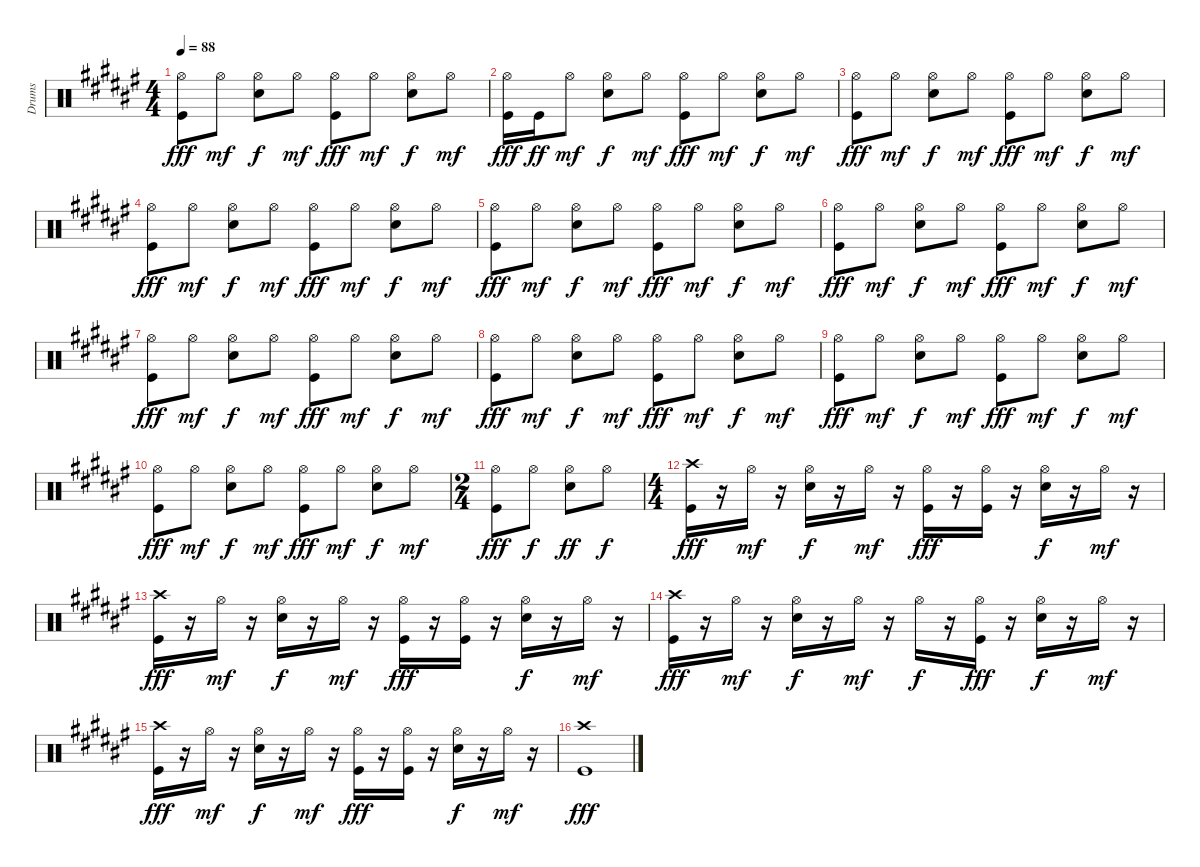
\track ("Drums" "Drums") {instrument percussion}
\staff {score}
\articulation defaults
\ts (4 4)
\tempo 88
\clef neutral
\ks f#
("Hi-Hat (open)" "Kick (hit)").8{dy fff} "Hi-Hat (open)".8{dy mf} ("Hi-Hat (open)" "Snare (hit) 2").8{dy f} "Hi-Hat (open)".8{dy mf} ("Hi-Hat (open)" "Kick (hit)").8{dy fff} "Hi-Hat (open)".8{dy mf} ("Hi-Hat (open)" "Snare (hit) 2").8{dy f} "Hi-Hat (open)".8{dy mf} |
("Hi-Hat (open)" "Kick (hit)").16{dy fff} "Kick (hit)".16{dy ff} "Hi-Hat (open)".8{dy mf} ("Hi-Hat (open)" "Snare (hit) 2").8{dy f} "Hi-Hat (open)".8{dy mf} ("Hi-Hat (open)" "Kick (hit)").8{dy fff} "Hi-Hat (open)".8{dy mf} ("Hi-Hat (open)" "Snare (hit) 2").8{dy f} "Hi-Hat (open)".8{dy mf} |
("Hi-Hat (open)" "Kick (hit)").8{dy fff} "Hi-Hat (open)".8{dy mf} ("Hi-Hat (open)" "Snare (hit) 2").8{dy f} "Hi-Hat (open)".8{dy mf} ("Hi-Hat (open)" "Kick (hit)").8{dy fff} "Hi-Hat (open)".8{dy mf} ("Hi-Hat (open)" "Snare (hit) 2").8{dy f} "Hi-Hat (open)".8{dy mf} |
("Hi-Hat (open)" "Kick (hit)").8{dy fff} "Hi-Hat (open)".8{dy mf} ("Hi-Hat (open)" "Snare (hit) 2").8{dy f} "Hi-Hat (open)".8{dy mf} ("Hi-Hat (open)" "Kick (hit)").8{dy fff} "Hi-Hat (open)".8{dy mf} ("Hi-Hat (open)" "Snare (hit) 2").8{dy f} "Hi-Hat (open)".8{dy mf} |
("Hi-Hat (open)" "Kick (hit)").8{dy fff} "Hi-Hat (open)".8{dy mf} ("Hi-Hat (open)" "Snare (hit) 2").8{dy f} "Hi-Hat (open)".8{dy mf} ("Hi-Hat (open)" "Kick (hit)").8{dy fff} "Hi-Hat (open)".8{dy mf} ("Hi-Hat (open)" "Snare (hit) 2").8{dy f} "Hi-Hat (open)".8{dy mf} |
("Hi-Hat (open)" "Kick (hit)").8{dy fff} "Hi-Hat (open)".8{dy mf} ("Hi-Hat (open)" "Snare (hit) 2").8{dy f} "Hi-Hat (open)".8{dy mf} ("Hi-Hat (open)" "Kick (hit)").8{dy fff} "Hi-Hat (open)".8{dy mf} ("Hi-Hat (open)" "Snare (hit) 2").8{dy f} "Hi-Hat (open)".8{dy mf} |
("Hi-Hat (open)" "Kick (hit)").8{dy fff} "Hi-Hat (open)".8{dy mf} ("Hi-Hat (open)" "Snare (hit) 2").8{dy f} "Hi-Hat (open)".8{dy mf} ("Hi-Hat (open)" "Kick (hit)").8{dy fff} "Hi-Hat (open)".8{dy mf} ("Hi-Hat (open)" "Snare (hit) 2").8{dy f} "Hi-Hat (open)".8{dy mf} |
("Hi-Hat (open)" "Kick (hit)").8{dy fff} "Hi-Hat (open)".8{dy mf} ("Hi-Hat (open)" "Snare (hit) 2").8{dy f} "Hi-Hat (open)".8{dy mf} ("Hi-Hat (open)" "Kick (hit)").8{dy fff} "Hi-Hat (open)".8{dy mf} ("Hi-Hat (open)" "Snare (hit) 2").8{dy f} "Hi-Hat (open)".8{dy mf} |
("Hi-Hat (open)" "Kick (hit)").8{dy fff} "Hi-Hat (open)".8{dy mf} ("Hi-Hat (open)" "Snare (hit) 2").8{dy f} "Hi-Hat (open)".8{dy mf} ("Hi-Hat (open)" "Kick (hit)").8{dy fff} "Hi-Hat (open)".8{dy mf} ("Hi-Hat (open)" "Snare (hit) 2").8{dy f} "Hi-Hat (open)".8{dy mf} |
("Hi-Hat (open)" "Kick (hit)").8{dy fff} "Hi-Hat (open)".8{dy mf} ("Hi-Hat (open)" "Snare (hit) 2").8{dy f} "Hi-Hat (open)".8{dy mf} ("Hi-Hat (open)" "Kick (hit)").8{dy fff} "Hi-Hat (open)".8{dy mf} ("Hi-Hat (open)" "Snare (hit) 2").8{dy f} "Hi-Hat (open)".8{dy mf} |
\ts (2 4)
("Hi-Hat (open)" "Kick (hit)").8{dy fff} "Hi-Hat (open)".8{dy f} ("Hi-Hat (open)" "Snare (hit) 2").8{dy ff} "Hi-Hat (open)".8{dy f} |
\ts (4 4)
("Crash high (hit)" "Kick (hit)").16{dy fff} r.16 "Hi-Hat (open)".16{dy mf} r.16 ("Hi-Hat (open)" "Snare (hit) 2").16{dy f} r.16 "Hi-Hat (open)".16{dy mf} r.16 ("Hi-Hat (open)" "Kick (hit)").16{dy fff} r.16 ("Hi-Hat (open)" "Kick (hit)").16 r.16 ("Hi-Hat (open)" "Snare (hit) 2").16{dy f} r.16 "Hi-Hat (open)".16{dy mf} r.16 |
("Crash high (hit)" "Kick (hit)").16{dy fff} r.16 "Hi-Hat (open)".16{dy mf} r.16 ("Hi-Hat (open)" "Snare (hit) 2").16{dy f} r.16 "Hi-Hat (open)".16{dy mf} r.16 ("Hi-Hat (open)" "Kick (hit)").16{dy fff} r.16 ("Hi-Hat (open)" "Kick (hit)").16 r.16 ("Hi-Hat (open)" "Snare (hit) 2").16{dy f} r.16 "Hi-Hat (open)".16{dy mf} r.16 |
("Crash high (hit)" "Kick (hit)").16{dy fff} r.16 "Hi-Hat (open)".16{dy mf} r.16 ("Hi-Hat (open)" "Snare (hit) 2").16{dy f} r.16 "Hi-Hat (open)".16{dy mf} r.16 "Hi-Hat (open)".16{dy f} r.16 ("Hi-Hat (open)" "Kick (hit)").16{dy fff} r.16 ("Hi-Hat (open)" "Snare (hit) 2").16{dy f} r.16 "Hi-Hat (open)".16{dy mf} r.16 |
("Crash high (hit)" "Kick (hit)").16{dy fff} r.16 "Hi-Hat (open)".16{dy mf} r.16 ("Hi-Hat (open)" "Snare (hit) 2").16{dy f} r.16 "Hi-Hat (open)".16{dy mf} r.16 ("Hi-Hat (open)" "Kick (hit)").16{dy fff} r.16 ("Hi-Hat (open)" "Kick (hit)").16 r.16 ("Hi-Hat (open)" "Snare (hit) 2").16{dy f} r.16 "Hi-Hat (open)".16{dy mf} r.16 |
("Crash high (hit)" "Kick (hit)").1{dy fff}
